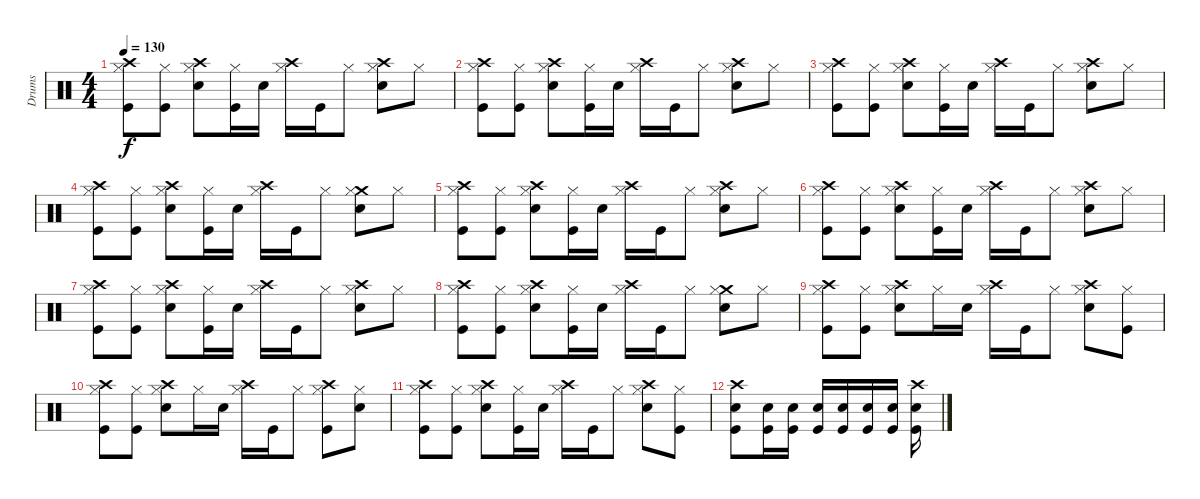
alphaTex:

\track ("Drums" "Drums") {instrument percussion}
\staff {score}
\articulation defaults
\ts (4 4)
\tempo 130
\clef neutral
\ks c
("Crash high (hit)" "Hi-Hat (closed)" "Kick (hit)").8{dy f} ("Hi-Hat (closed)" "Kick (hit)").8 ("Crash high (hit)" "Hi-Hat (closed)" "Snare (hit) 2").8 ("Hi-Hat (closed)" "Kick (hit)").16 "Snare (hit) 2".16 ("Crash high (hit)" "Hi-Hat (closed)").16 "Kick (hit)".16 "Hi-Hat (closed)".8 ("Crash high (hit)" "Hi-Hat (closed)" "Snare (hit) 2").8 "Hi-Hat (closed)".8 |
("Crash high (hit)" "Hi-Hat (closed)" "Kick (hit)").8 ("Hi-Hat (closed)" "Kick (hit)").8 ("Crash high (hit)" "Hi-Hat (closed)" "Snare (hit) 2").8 ("Hi-Hat (closed)" "Kick (hit)").16 "Snare (hit) 2".16 ("Crash high (hit)" "Hi-Hat (closed)").16 "Kick (hit)".16 "Hi-Hat (closed)".8 ("Crash high (hit)" "Hi-Hat (closed)" "Snare (hit) 2").8 "Hi-Hat (closed)".8 |
("Crash high (hit)" "Hi-Hat (closed)" "Kick (hit)").8 ("Hi-Hat (closed)" "Kick (hit)").8 ("Crash high (hit)" "Hi-Hat (closed)" "Snare (hit) 2").8 ("Hi-Hat (closed)" "Kick (hit)").16 "Snare (hit) 2".16 ("Crash high (hit)" "Hi-Hat (closed)").16 "Kick (hit)".16 "Hi-Hat (closed)".8 ("Crash high (hit)" "Hi-Hat (closed)" "Snare (hit) 2").8 "Hi-Hat (closed)".8 |
("Crash high (hit)" "Hi-Hat (closed)" "Kick (hit)").8 ("Hi-Hat (closed)" "Kick (hit)").8 ("Crash high (hit)" "Hi-Hat (closed)" "Snare (hit) 2").8 ("Hi-Hat (closed)" "Kick (hit)").16 "Snare (hit) 2".16 ("Crash high (hit)" "Hi-Hat (closed)").16 "Kick (hit)".16 "Hi-Hat (closed)".8 ("Crash medium (hit)" "Hi-Hat (closed)" "Snare (hit) 2").8 "Hi-Hat (closed)".8 |
("Crash high (hit)" "Hi-Hat (closed)" "Kick (hit)").8 ("Hi-Hat (closed)" "Kick (hit)").8 ("Crash high (hit)" "Hi-Hat (closed)" "Snare (hit) 2").8 ("Hi-Hat (closed)" "Kick (hit)").16 "Snare (hit) 2".16 ("Crash high (hit)" "Hi-Hat (closed)").16 "Kick (hit)".16 "Hi-Hat (closed)".8 ("Crash high (hit)" "Hi-Hat (closed)" "Snare (hit) 2").8 "Hi-Hat (closed)".8 |
("Crash high (hit)" "Hi-Hat (closed)" "Kick (hit)").8 ("Hi-Hat (closed)" "Kick (hit)").8 ("Crash high (hit)" "Hi-Hat (closed)" "Snare (hit) 2").8 ("Hi-Hat (closed)" "Kick (hit)").16 "Snare (hit) 2".16 ("Crash high (hit)" "Hi-Hat (closed)").16 "Kick (hit)".16 "Hi-Hat (closed)".8 ("Crash high (hit)" "Hi-Hat (closed)" "Snare (hit) 2").8 "Hi-Hat (closed)".8 |
("Crash high (hit)" "Hi-Hat (closed)" "Kick (hit)").8 ("Hi-Hat (closed)" "Kick (hit)").8 ("Crash high (hit)" "Hi-Hat (closed)" "Snare (hit) 2").8 ("Hi-Hat (closed)" "Kick (hit)").16 "Snare (hit) 2".16 ("Crash high (hit)" "Hi-Hat (closed)").16 "Kick (hit)".16 "Hi-Hat (closed)".8 ("Crash high (hit)" "Hi-Hat (closed)" "Snare (hit) 2").8 "Hi-Hat (closed)".8 |
("Crash high (hit)" "Hi-Hat (closed)" "Kick (hit)").8 ("Hi-Hat (closed)" "Kick (hit)").8 ("Crash high (hit)" "Hi-Hat (closed)" "Snare (hit) 2").8 ("Hi-Hat (closed)" "Kick (hit)").16 "Snare (hit) 2".16 ("Crash high (hit)" "Hi-Hat (closed)").16 "Kick (hit)".16 "Hi-Hat (closed)".8 ("Crash medium (hit)" "Hi-Hat (closed)" "Snare (hit) 2").8 "Hi-Hat (closed)".8 |
("Crash high (hit)" "Hi-Hat (closed)" "Kick (hit)").8 ("Hi-Hat (closed)" "Kick (hit)").8 ("Crash high (hit)" "Hi-Hat (closed)" "Snare (hit) 2").8 "Hi-Hat (closed)".16 "Snare (hit) 2".16 ("Crash high (hit)" "Hi-Hat (closed)").16 "Kick (hit)".16 "Hi-Hat (closed)".8 ("Crash high (hit)" "Hi-Hat (closed)" "Snare (hit) 2").8 ("Hi-Hat (closed)" "Kick (hit)").8 |
("Crash high (hit)" "Hi-Hat (closed)" "Kick (hit)").8 ("Hi-Hat (closed)" "Kick (hit)").8 ("Crash high (hit)" "Hi-Hat (closed)" "Snare (hit) 2").8 "Hi-Hat (closed)".16 "Snare (hit) 2".16 ("Crash high (hit)" "Hi-Hat (closed)").16 "Kick (hit)".16 "Hi-Hat (closed)".8 ("Crash high (hit)" "Hi-Hat (closed)" "Kick (hit)").8 ("Hi-Hat (closed)" "Snare (hit) 2").8 |
("Crash high (hit)" "Hi-Hat (closed)" "Kick (hit)").8 ("Hi-Hat (closed)" "Kick (hit)").8 ("Crash high (hit)" "Hi-Hat (closed)" "Snare (hit) 2").8 ("Hi-Hat (closed)" "Kick (hit)").16 "Snare (hit) 2".16 ("Crash high (hit)" "Hi-Hat (closed)").16 "Kick (hit)".16 "Hi-Hat (closed)".8 ("Crash high (hit)" "Hi-Hat (closed)" "Snare (hit) 2").8 ("Hi-Hat (closed)" "Kick (hit)").8 |
("Crash high (hit)" "Snare (hit) 2" "Kick (hit)").8 ("Snare (hit) 2" "Kick (hit)").16 ("Snare (hit) 2" "Kick (hit)").16 ("Snare (hit) 2" "Kick (hit)").16 ("Snare (hit) 2" "Kick (hit)").16 ("Snare (hit) 2" "Kick (hit)").16 ("Snare (hit) 2" "Kick (hit)").16 ("Crash high (hit)" "Snare (hit) 2" "Kick (hit)").16
